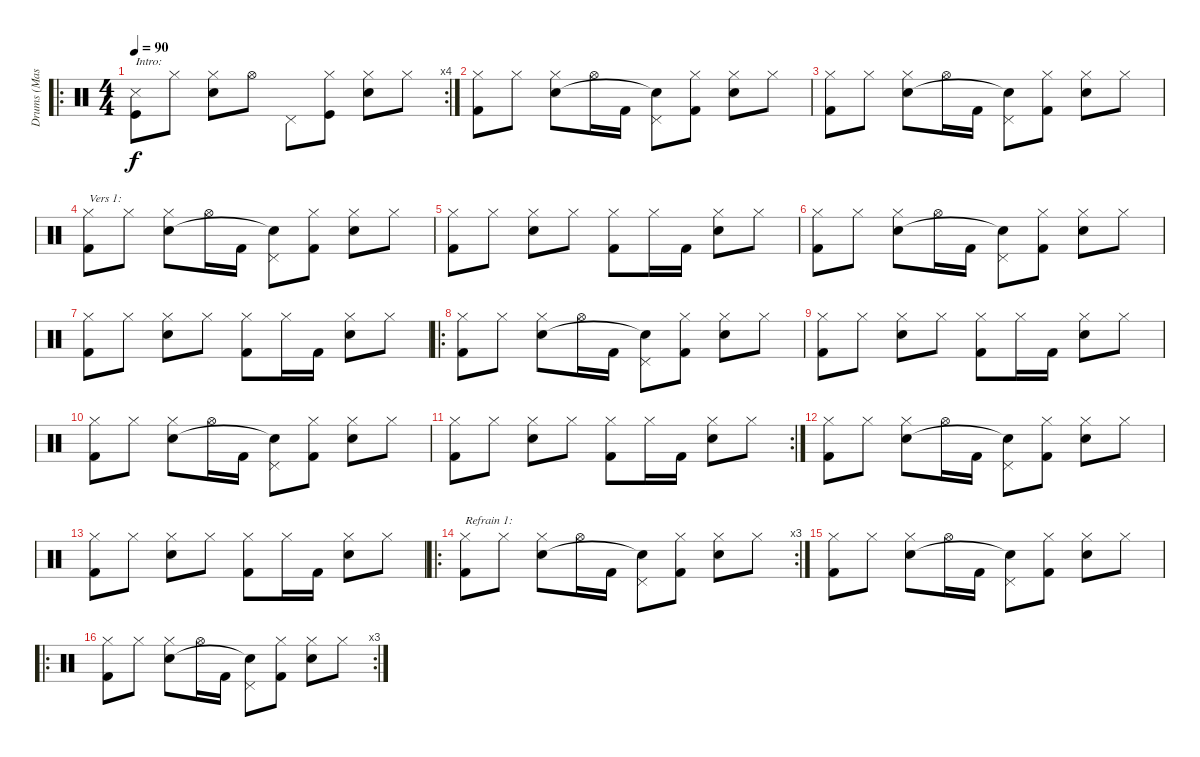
\track ("Drums (Mason):" "Drums (Mas") {instrument percussion}
\staff {score}
\articulation defaults
\ro
\rc 4
\ts (4 4)
\tempo 90
\clef neutral
\ks c
("Snare (side stick) 3" "Kick (hit)").8{txt "Intro:" dy f} "Hi-Hat (closed)".8 ("Hi-Hat (closed)" "Metronome (bell)").8 "Hi-Hat (open)".8 "Pedal Hi-Hat (hit)".8 ("Hi-Hat (closed)" "Kick (hit)").8 ("Hi-Hat (closed)" "Metronome (bell)").8 "Hi-Hat (closed)".8 |
("Hi-Hat (closed)" "Kick (hit) 2").8 "Hi-Hat (closed)".8 ("Hi-Hat (closed)" "Snare (hit) 2").8 "Hi-Hat (open)".16 "Kick (hit) 2".16 ("Pedal Hi-Hat (hit)" "Snare (hit)"{t}).8 ("Hi-Hat (closed)" "Kick (hit) 2").8 ("Hi-Hat (closed)" "Snare (hit) 2").8 "Hi-Hat (closed)".8 |
("Hi-Hat (closed)" "Kick (hit) 2").8 "Hi-Hat (closed)".8 ("Hi-Hat (closed)" "Snare (hit) 2").8 "Hi-Hat (open)".16 "Kick (hit) 2".16 ("Pedal Hi-Hat (hit)" "Snare (hit)"{t}).8 ("Hi-Hat (closed)" "Kick (hit) 2").8 ("Hi-Hat (closed)" "Snare (hit) 2").8 "Hi-Hat (closed)".8 |
("Hi-Hat (closed)" "Kick (hit) 2").8{txt "Vers 1:"} "Hi-Hat (closed)".8 ("Hi-Hat (closed)" "Snare (hit) 2").8 "Hi-Hat (open)".16 "Kick (hit) 2".16 ("Pedal Hi-Hat (hit)" "Snare (hit)"{t}).8 ("Hi-Hat (closed)" "Kick (hit) 2").8 ("Hi-Hat (closed)" "Snare (hit) 2").8 "Hi-Hat (closed)".8 |
("Hi-Hat (closed)" "Kick (hit) 2").8 "Hi-Hat (closed)".8 ("Hi-Hat (closed)" "Snare (hit) 2").8 "Hi-Hat (closed)".8 ("Hi-Hat (closed)" "Kick (hit) 2").8 "Hi-Hat (closed)".16 "Kick (hit) 2".16 ("Hi-Hat (closed)" "Snare (hit) 2").8 "Hi-Hat (closed)".8 |
("Hi-Hat (closed)" "Kick (hit) 2").8 "Hi-Hat (closed)".8 ("Hi-Hat (closed)" "Snare (hit) 2").8 "Hi-Hat (open)".16 "Kick (hit) 2".16 ("Pedal Hi-Hat (hit)" "Snare (hit)"{t}).8 ("Hi-Hat (closed)" "Kick (hit) 2").8 ("Hi-Hat (closed)" "Snare (hit) 2").8 "Hi-Hat (closed)".8 |
("Hi-Hat (closed)" "Kick (hit) 2").8 "Hi-Hat (closed)".8 ("Hi-Hat (closed)" "Snare (hit) 2").8 "Hi-Hat (closed)".8 ("Hi-Hat (closed)" "Kick (hit) 2").8 "Hi-Hat (closed)".16 "Kick (hit) 2".16 ("Hi-Hat (closed)" "Snare (hit) 2").8 "Hi-Hat (closed)".8 |
\ro
("Hi-Hat (closed)" "Kick (hit) 2").8 "Hi-Hat (closed)".8 ("Hi-Hat (closed)" "Snare (hit) 2").8 "Hi-Hat (open)".16 "Kick (hit) 2".16 ("Pedal Hi-Hat (hit)" "Snare (hit)"{t}).8 ("Hi-Hat (closed)" "Kick (hit) 2").8 ("Hi-Hat (closed)" "Snare (hit) 2").8 "Hi-Hat (closed)".8 |
("Hi-Hat (closed)" "Kick (hit) 2").8 "Hi-Hat (closed)".8 ("Hi-Hat (closed)" "Snare (hit) 2").8 "Hi-Hat (closed)".8 ("Hi-Hat (closed)" "Kick (hit) 2").8 "Hi-Hat (closed)".16 "Kick (hit) 2".16 ("Hi-Hat (closed)" "Snare (hit) 2").8 "Hi-Hat (closed)".8 |
("Hi-Hat (closed)" "Kick (hit) 2").8 "Hi-Hat (closed)".8 ("Hi-Hat (closed)" "Snare (hit) 2").8 "Hi-Hat (open)".16 "Kick (hit) 2".16 ("Pedal Hi-Hat (hit)" "Snare (hit)"{t}).8 ("Hi-Hat (closed)" "Kick (hit) 2").8 ("Hi-Hat (closed)" "Snare (hit) 2").8 "Hi-Hat (closed)".8 |
\rc 2
("Hi-Hat (closed)" "Kick (hit) 2").8 "Hi-Hat (closed)".8 ("Hi-Hat (closed)" "Snare (hit) 2").8 "Hi-Hat (closed)".8 ("Hi-Hat (closed)" "Kick (hit) 2").8 "Hi-Hat (closed)".16 "Kick (hit) 2".16 ("Hi-Hat (closed)" "Snare (hit) 2").8 "Hi-Hat (closed)".8 |
("Hi-Hat (closed)" "Kick (hit) 2").8 "Hi-Hat (closed)".8 ("Hi-Hat (closed)" "Snare (hit) 2").8 "Hi-Hat (open)".16 "Kick (hit) 2".16 ("Pedal Hi-Hat (hit)" "Snare (hit)"{t}).8 ("Hi-Hat (closed)" "Kick (hit) 2").8 ("Hi-Hat (closed)" "Snare (hit) 2").8 "Hi-Hat (closed)".8 |
("Hi-Hat (closed)" "Kick (hit) 2").8 "Hi-Hat (closed)".8 ("Hi-Hat (closed)" "Snare (hit) 2").8 "Hi-Hat (closed)".8 ("Hi-Hat (closed)" "Kick (hit) 2").8 "Hi-Hat (closed)".16 "Kick (hit) 2".16 ("Hi-Hat (closed)" "Snare (hit) 2").8 "Hi-Hat (closed)".8 |
\ro
\rc 3
("Hi-Hat (closed)" "Kick (hit) 2").8{txt "Refrain 1:"} "Hi-Hat (closed)".8 ("Hi-Hat (closed)" "Snare (hit) 2").8 "Hi-Hat (open)".16 "Kick (hit) 2".16 ("Pedal Hi-Hat (hit)" "Snare (hit)"{t}).8 ("Hi-Hat (closed)" "Kick (hit) 2").8 ("Hi-Hat (closed)" "Snare (hit) 2").8 "Hi-Hat (closed)".8 |
("Hi-Hat (closed)" "Kick (hit) 2").8 "Hi-Hat (closed)".8 ("Hi-Hat (closed)" "Snare (hit) 2").8 "Hi-Hat (open)".16 "Kick (hit) 2".16 ("Pedal Hi-Hat (hit)" "Snare (hit)"{t}).8 ("Hi-Hat (closed)" "Kick (hit) 2").8 ("Hi-Hat (closed)" "Snare (hit) 2").8 "Hi-Hat (closed)".8 |
\ro
\rc 3
("Hi-Hat (closed)" "Kick (hit) 2").8 "Hi-Hat (closed)".8 ("Hi-Hat (closed)" "Snare (hit) 2").8 "Hi-Hat (open)".16 "Kick (hit) 2".16 ("Pedal Hi-Hat (hit)" "Snare (hit)"{t}).8 ("Hi-Hat (closed)" "Kick (hit) 2").8 ("Hi-Hat (closed)" "Snare (hit) 2").8 "Hi-Hat (closed)".8
